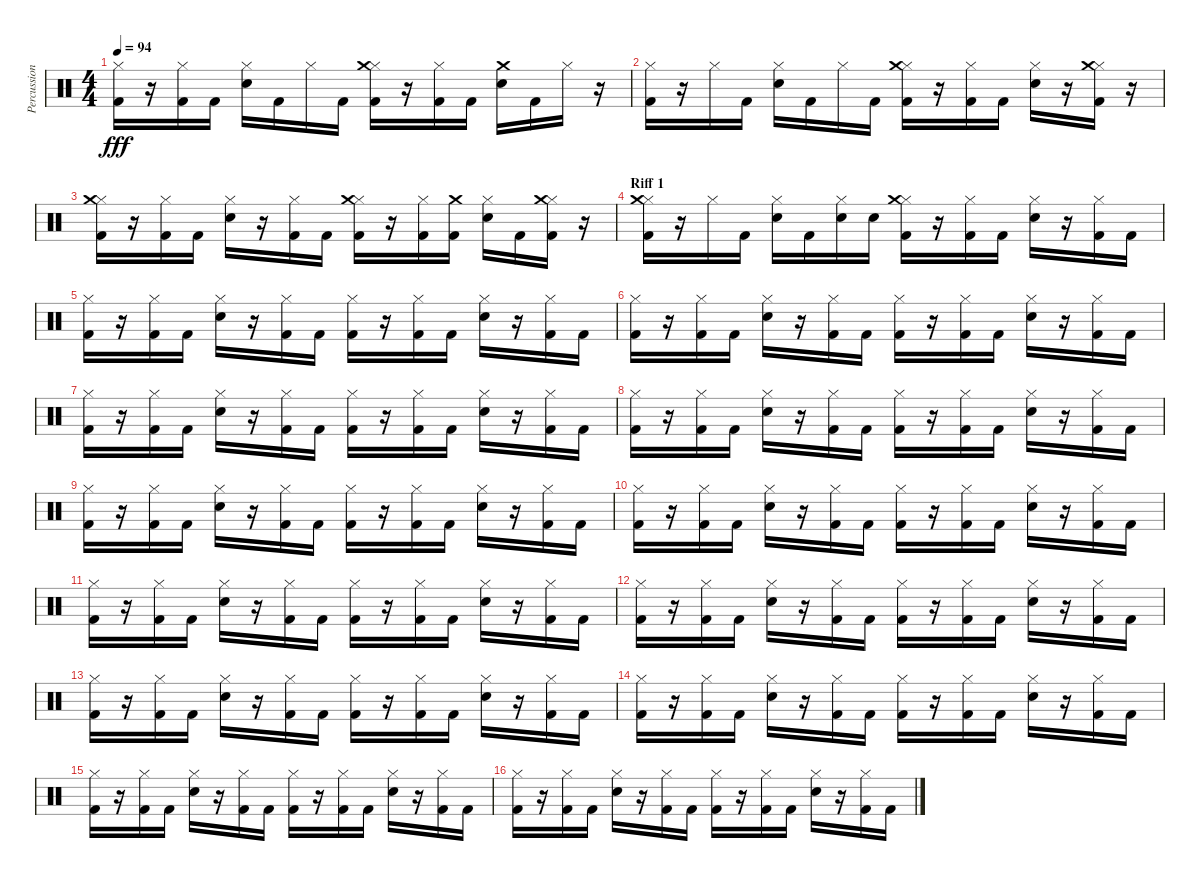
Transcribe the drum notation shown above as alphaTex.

\track ("Percussions" "Percussion") {instrument percussion}
\staff {score}
\articulation defaults
\ts (4 4)
\tempo 94
\clef neutral
\ks c
("Kick (hit) 2" "Hi-Hat (closed)").16{dy fff} r.16 ("Kick (hit) 2" "Hi-Hat (closed)").16 "Kick (hit) 2".16 ("Electric Snare (hit)" "Hi-Hat (closed)").16 "Kick (hit) 2".16 "Hi-Hat (closed)".16 "Kick (hit) 2".16 ("Kick (hit) 2" "Hi-Hat (closed)" "Crash medium (hit)").16 r.16 ("Kick (hit) 2" "Hi-Hat (closed)").16 "Kick (hit) 2".16 ("Electric Snare (hit)" "Crash medium (hit)").16 "Kick (hit) 2".16 "Hi-Hat (closed)".16 r.16 |
("Kick (hit) 2" "Hi-Hat (closed)").16 r.16 "Hi-Hat (closed)".16 "Kick (hit) 2".16 ("Electric Snare (hit)" "Hi-Hat (closed)").16 "Kick (hit) 2".16 "Hi-Hat (closed)".16 "Kick (hit) 2".16 ("Kick (hit) 2" "Hi-Hat (closed)" "Crash medium (hit)").16 r.16 ("Kick (hit) 2" "Hi-Hat (closed)").16 "Kick (hit) 2".16 ("Electric Snare (hit)" "Hi-Hat (closed)").16 r.16 ("Kick (hit) 2" "Hi-Hat (closed)" "Crash medium (hit)").16 r.16 |
("Kick (hit) 2" "Hi-Hat (closed)" "Crash medium (hit)").16 r.16 ("Kick (hit) 2" "Hi-Hat (closed)").16 "Kick (hit) 2".16 ("Electric Snare (hit)" "Hi-Hat (closed)").16 r.16 ("Kick (hit) 2" "Hi-Hat (closed)").16 "Kick (hit) 2".16 ("Kick (hit) 2" "Hi-Hat (closed)" "Crash medium (hit)").16 r.16 ("Kick (hit) 2" "Hi-Hat (closed)").16 ("Kick (hit) 2" "Crash medium (hit)").16 ("Electric Snare (hit)" "Hi-Hat (closed)").16 "Kick (hit) 2".16 ("Kick (hit) 2" "Hi-Hat (closed)" "Crash medium (hit)").16 r.16 |
\section ("" "Riff 1")
("Kick (hit) 2" "Hi-Hat (closed)" "Crash medium (hit)").16 r.16 "Hi-Hat (closed)".16 "Kick (hit) 2".16 ("Electric Snare (hit)" "Hi-Hat (closed)").16 "Kick (hit) 2".16 ("Electric Snare (hit)" "Hi-Hat (closed)").16 "Electric Snare (hit)".16 ("Kick (hit) 2" "Hi-Hat (closed)" "Crash medium (hit)").16 r.16 ("Kick (hit) 2" "Hi-Hat (closed)").16 "Kick (hit) 2".16 ("Electric Snare (hit)" "Hi-Hat (closed)").16 r.16 ("Kick (hit) 2" "Hi-Hat (closed)").16 "Kick (hit) 2".16 |
("Kick (hit) 2" "Hi-Hat (closed)").16 r.16 ("Kick (hit) 2" "Hi-Hat (closed)").16 "Kick (hit) 2".16 ("Electric Snare (hit)" "Hi-Hat (closed)").16 r.16 ("Kick (hit) 2" "Hi-Hat (closed)").16 "Kick (hit) 2".16 ("Kick (hit) 2" "Hi-Hat (closed)").16 r.16 ("Kick (hit) 2" "Hi-Hat (closed)").16 "Kick (hit) 2".16 ("Electric Snare (hit)" "Hi-Hat (closed)").16 r.16 ("Kick (hit) 2" "Hi-Hat (closed)").16 "Kick (hit) 2".16 |
("Kick (hit) 2" "Hi-Hat (closed)").16 r.16 ("Kick (hit) 2" "Hi-Hat (closed)").16 "Kick (hit) 2".16 ("Electric Snare (hit)" "Hi-Hat (closed)").16 r.16 ("Kick (hit) 2" "Hi-Hat (closed)").16 "Kick (hit) 2".16 ("Kick (hit) 2" "Hi-Hat (closed)").16 r.16 ("Kick (hit) 2" "Hi-Hat (closed)").16 "Kick (hit) 2".16 ("Electric Snare (hit)" "Hi-Hat (closed)").16 r.16 ("Kick (hit) 2" "Hi-Hat (closed)").16 "Kick (hit) 2".16 |
("Kick (hit) 2" "Hi-Hat (closed)").16 r.16 ("Kick (hit) 2" "Hi-Hat (closed)").16 "Kick (hit) 2".16 ("Electric Snare (hit)" "Hi-Hat (closed)").16 r.16 ("Kick (hit) 2" "Hi-Hat (closed)").16 "Kick (hit) 2".16 ("Kick (hit) 2" "Hi-Hat (closed)").16 r.16 ("Kick (hit) 2" "Hi-Hat (closed)").16 "Kick (hit) 2".16 ("Electric Snare (hit)" "Hi-Hat (closed)").16 r.16 ("Kick (hit) 2" "Hi-Hat (closed)").16 "Kick (hit) 2".16 |
("Kick (hit) 2" "Hi-Hat (closed)").16 r.16 ("Kick (hit) 2" "Hi-Hat (closed)").16 "Kick (hit) 2".16 ("Electric Snare (hit)" "Hi-Hat (closed)").16 r.16 ("Kick (hit) 2" "Hi-Hat (closed)").16 "Kick (hit) 2".16 ("Kick (hit) 2" "Hi-Hat (closed)").16 r.16 ("Kick (hit) 2" "Hi-Hat (closed)").16 "Kick (hit) 2".16 ("Electric Snare (hit)" "Hi-Hat (closed)").16 r.16 ("Kick (hit) 2" "Hi-Hat (closed)").16 "Kick (hit) 2".16 |
("Kick (hit) 2" "Hi-Hat (closed)").16 r.16 ("Kick (hit) 2" "Hi-Hat (closed)").16 "Kick (hit) 2".16 ("Electric Snare (hit)" "Hi-Hat (closed)").16 r.16 ("Kick (hit) 2" "Hi-Hat (closed)").16 "Kick (hit) 2".16 ("Kick (hit) 2" "Hi-Hat (closed)").16 r.16 ("Kick (hit) 2" "Hi-Hat (closed)").16 "Kick (hit) 2".16 ("Electric Snare (hit)" "Hi-Hat (closed)").16 r.16 ("Kick (hit) 2" "Hi-Hat (closed)").16 "Kick (hit) 2".16 |
("Kick (hit) 2" "Hi-Hat (closed)").16 r.16 ("Kick (hit) 2" "Hi-Hat (closed)").16 "Kick (hit) 2".16 ("Electric Snare (hit)" "Hi-Hat (closed)").16 r.16 ("Kick (hit) 2" "Hi-Hat (closed)").16 "Kick (hit) 2".16 ("Kick (hit) 2" "Hi-Hat (closed)").16 r.16 ("Kick (hit) 2" "Hi-Hat (closed)").16 "Kick (hit) 2".16 ("Electric Snare (hit)" "Hi-Hat (closed)").16 r.16 ("Kick (hit) 2" "Hi-Hat (closed)").16 "Kick (hit) 2".16 |
("Kick (hit) 2" "Hi-Hat (closed)").16 r.16 ("Kick (hit) 2" "Hi-Hat (closed)").16 "Kick (hit) 2".16 ("Electric Snare (hit)" "Hi-Hat (closed)").16 r.16 ("Kick (hit) 2" "Hi-Hat (closed)").16 "Kick (hit) 2".16 ("Kick (hit) 2" "Hi-Hat (closed)").16 r.16 ("Kick (hit) 2" "Hi-Hat (closed)").16 "Kick (hit) 2".16 ("Electric Snare (hit)" "Hi-Hat (closed)").16 r.16 ("Kick (hit) 2" "Hi-Hat (closed)").16 "Kick (hit) 2".16 |
("Kick (hit) 2" "Hi-Hat (closed)").16 r.16 ("Kick (hit) 2" "Hi-Hat (closed)").16 "Kick (hit) 2".16 ("Electric Snare (hit)" "Hi-Hat (closed)").16 r.16 ("Kick (hit) 2" "Hi-Hat (closed)").16 "Kick (hit) 2".16 ("Kick (hit) 2" "Hi-Hat (closed)").16 r.16 ("Kick (hit) 2" "Hi-Hat (closed)").16 "Kick (hit) 2".16 ("Electric Snare (hit)" "Hi-Hat (closed)").16 r.16 ("Kick (hit) 2" "Hi-Hat (closed)").16 "Kick (hit) 2".16 |
("Kick (hit) 2" "Hi-Hat (closed)").16 r.16 ("Kick (hit) 2" "Hi-Hat (closed)").16 "Kick (hit) 2".16 ("Electric Snare (hit)" "Hi-Hat (closed)").16 r.16 ("Kick (hit) 2" "Hi-Hat (closed)").16 "Kick (hit) 2".16 ("Kick (hit) 2" "Hi-Hat (closed)").16 r.16 ("Kick (hit) 2" "Hi-Hat (closed)").16 "Kick (hit) 2".16 ("Electric Snare (hit)" "Hi-Hat (closed)").16 r.16 ("Kick (hit) 2" "Hi-Hat (closed)").16 "Kick (hit) 2".16 |
("Kick (hit) 2" "Hi-Hat (closed)").16 r.16 ("Kick (hit) 2" "Hi-Hat (closed)").16 "Kick (hit) 2".16 ("Electric Snare (hit)" "Hi-Hat (closed)").16 r.16 ("Kick (hit) 2" "Hi-Hat (closed)").16 "Kick (hit) 2".16 ("Kick (hit) 2" "Hi-Hat (closed)").16 r.16 ("Kick (hit) 2" "Hi-Hat (closed)").16 "Kick (hit) 2".16 ("Electric Snare (hit)" "Hi-Hat (closed)").16 r.16 ("Kick (hit) 2" "Hi-Hat (closed)").16 "Kick (hit) 2".16 |
("Kick (hit) 2" "Hi-Hat (closed)").16 r.16 ("Kick (hit) 2" "Hi-Hat (closed)").16 "Kick (hit) 2".16 ("Electric Snare (hit)" "Hi-Hat (closed)").16 r.16 ("Kick (hit) 2" "Hi-Hat (closed)").16 "Kick (hit) 2".16 ("Kick (hit) 2" "Hi-Hat (closed)").16 r.16 ("Kick (hit) 2" "Hi-Hat (closed)").16 "Kick (hit) 2".16 ("Electric Snare (hit)" "Hi-Hat (closed)").16 r.16 ("Kick (hit) 2" "Hi-Hat (closed)").16 "Kick (hit) 2".16 |
("Kick (hit) 2" "Hi-Hat (closed)").16 r.16 ("Kick (hit) 2" "Hi-Hat (closed)").16 "Kick (hit) 2".16 ("Electric Snare (hit)" "Hi-Hat (closed)").16 r.16 ("Kick (hit) 2" "Hi-Hat (closed)").16 "Kick (hit) 2".16 ("Kick (hit) 2" "Hi-Hat (closed)").16 r.16 ("Kick (hit) 2" "Hi-Hat (closed)").16 "Kick (hit) 2".16 ("Electric Snare (hit)" "Hi-Hat (closed)").16 r.16 ("Kick (hit) 2" "Hi-Hat (closed)").16 "Kick (hit) 2".16
